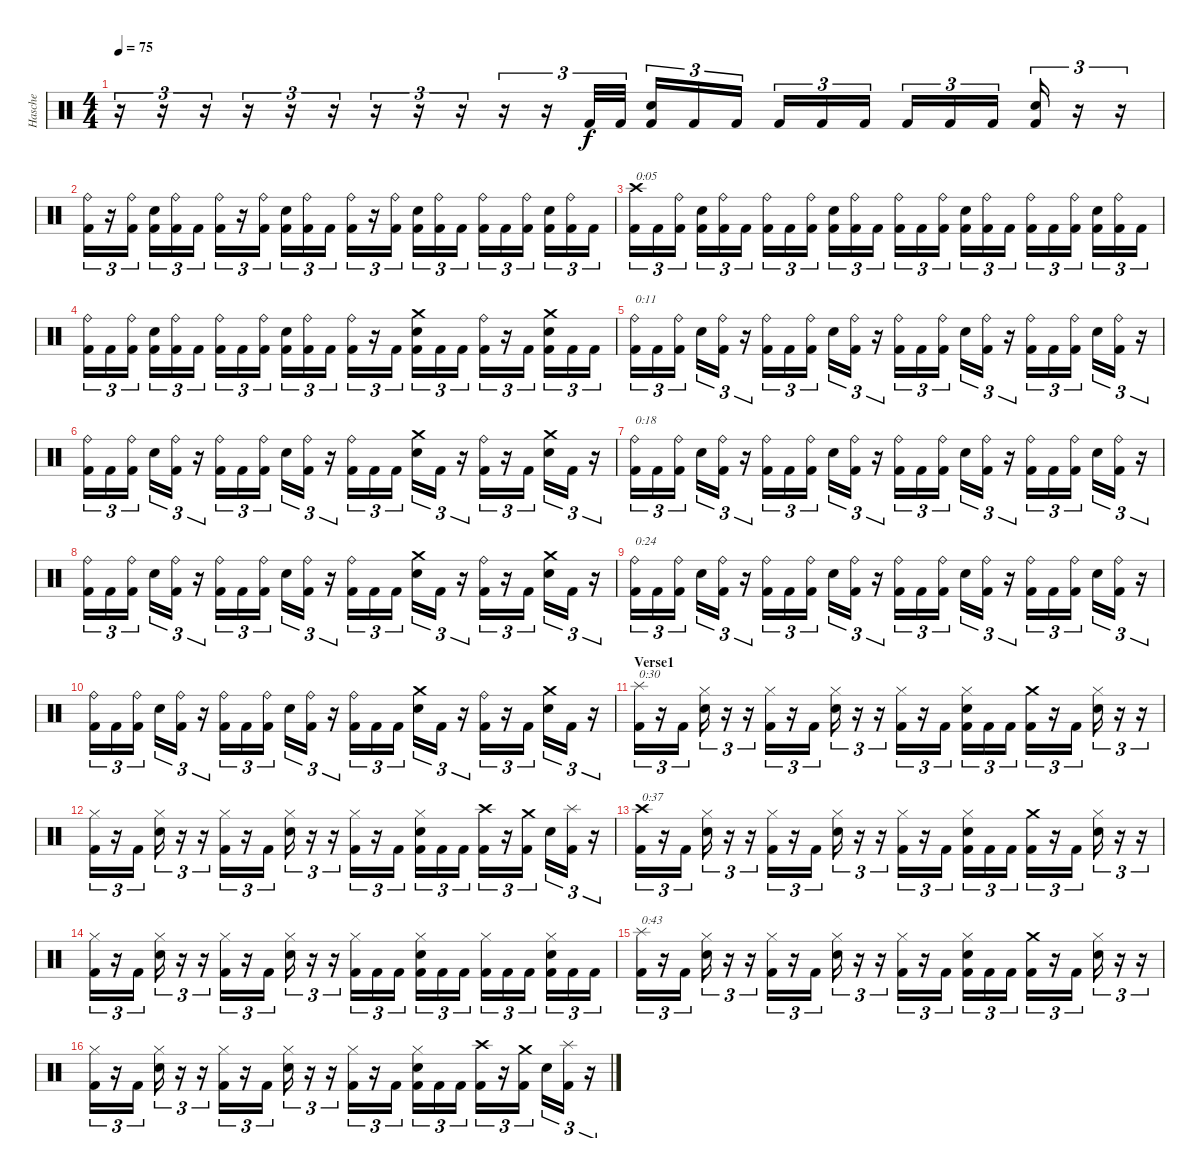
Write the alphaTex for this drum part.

\track ("Hasche" "Hasche") {instrument percussion}
\staff {score}
\articulation defaults
\ts (4 4)
\tempo 75
\clef neutral
\ks c
r.16{tu (3 2) dy f} r.16{tu (3 2)} r.16{tu (3 2)} r.16{tu (3 2)} r.16{tu (3 2)} r.16{tu (3 2)} r.16{tu (3 2)} r.16{tu (3 2)} r.16{tu (3 2)} r.16{tu (3 2)} r.16{tu (3 2)} "Kick (hit) 2".32{tu (3 2)} "Kick (hit) 2".32{tu (3 2)} ("Snare (hit) 2" "Kick (hit) 2").16{tu (3 2)} "Kick (hit) 2".16{tu (3 2)} "Kick (hit) 2".16{tu (3 2)} "Kick (hit) 2".16{tu (3 2)} "Kick (hit) 2".16{tu (3 2)} "Kick (hit) 2".16{tu (3 2)} "Kick (hit) 2".16{tu (3 2)} "Kick (hit) 2".16{tu (3 2)} "Kick (hit) 2".16{tu (3 2)} ("Snare (hit) 2" "Kick (hit) 2").16{tu (3 2)} r.16{tu (3 2)} r.16{tu (3 2)} |
("Ride (bell)" "Kick (hit) 2").16{tu (3 2)} r.16{tu (3 2)} ("Ride (bell)" "Kick (hit) 2").16{tu (3 2)} ("Snare (hit) 2" "Kick (hit) 2").16{tu (3 2)} ("Ride (bell)" "Kick (hit) 2").16{tu (3 2)} "Kick (hit) 2".16{tu (3 2)} ("Ride (bell)" "Kick (hit) 2").16{tu (3 2)} r.16{tu (3 2)} ("Ride (bell)" "Kick (hit) 2").16{tu (3 2)} ("Snare (hit) 2" "Kick (hit) 2").16{tu (3 2)} ("Ride (bell)" "Kick (hit) 2").16{tu (3 2)} "Kick (hit) 2".16{tu (3 2)} ("Ride (bell)" "Kick (hit) 2").16{tu (3 2)} r.16{tu (3 2)} ("Ride (bell)" "Kick (hit) 2").16{tu (3 2)} ("Snare (hit) 2" "Kick (hit) 2").16{tu (3 2)} ("Ride (bell)" "Kick (hit) 2").16{tu (3 2)} "Kick (hit) 2".16{tu (3 2)} ("Ride (bell)" "Kick (hit) 2").16{tu (3 2)} "Kick (hit) 2".16{tu (3 2)} ("Ride (bell)" "Kick (hit) 2").16{tu (3 2)} ("Snare (hit) 2" "Kick (hit) 2").16{tu (3 2)} ("Ride (bell)" "Kick (hit) 2").16{tu (3 2)} "Kick (hit) 2".16{tu (3 2)} |
("Crash high (hit)" "Kick (hit) 2").16{tu (3 2) txt "0:05"} "Kick (hit) 2".16{tu (3 2)} ("Ride (bell)" "Kick (hit) 2").16{tu (3 2)} ("Snare (hit) 2" "Kick (hit) 2").16{tu (3 2)} ("Ride (bell)" "Kick (hit) 2").16{tu (3 2)} "Kick (hit) 2".16{tu (3 2)} ("Ride (bell)" "Kick (hit) 2").16{tu (3 2)} "Kick (hit) 2".16{tu (3 2)} ("Ride (bell)" "Kick (hit) 2").16{tu (3 2)} ("Snare (hit) 2" "Kick (hit) 2").16{tu (3 2)} ("Ride (bell)" "Kick (hit) 2").16{tu (3 2)} "Kick (hit) 2".16{tu (3 2)} ("Ride (bell)" "Kick (hit) 2").16{tu (3 2)} "Kick (hit) 2".16{tu (3 2)} ("Ride (bell)" "Kick (hit) 2").16{tu (3 2)} ("Snare (hit) 2" "Kick (hit) 2").16{tu (3 2)} ("Ride (bell)" "Kick (hit) 2").16{tu (3 2)} "Kick (hit) 2".16{tu (3 2)} ("Ride (bell)" "Kick (hit) 2").16{tu (3 2)} "Kick (hit) 2".16{tu (3 2)} ("Ride (bell)" "Kick (hit) 2").16{tu (3 2)} ("Snare (hit) 2" "Kick (hit) 2").16{tu (3 2)} ("Ride (bell)" "Kick (hit) 2").16{tu (3 2)} "Kick (hit) 2".16{tu (3 2)} |
("Ride (bell)" "Kick (hit) 2").16{tu (3 2)} "Kick (hit) 2".16{tu (3 2)} ("Ride (bell)" "Kick (hit) 2").16{tu (3 2)} ("Snare (hit) 2" "Kick (hit) 2").16{tu (3 2)} ("Ride (bell)" "Kick (hit) 2").16{tu (3 2)} "Kick (hit) 2".16{tu (3 2)} ("Ride (bell)" "Kick (hit) 2").16{tu (3 2)} "Kick (hit) 2".16{tu (3 2)} ("Ride (bell)" "Kick (hit) 2").16{tu (3 2)} ("Snare (hit) 2" "Kick (hit) 2").16{tu (3 2)} ("Ride (bell)" "Kick (hit) 2").16{tu (3 2)} "Kick (hit) 2".16{tu (3 2)} ("Ride (bell)" "Kick (hit) 2").16{tu (3 2)} r.16{tu (3 2)} "Kick (hit) 2".16{tu (3 2)} ("Crash medium (hit)" "Snare (hit) 2" "Kick (hit) 2").16{tu (3 2)} "Kick (hit) 2".16{tu (3 2)} "Kick (hit) 2".16{tu (3 2)} ("Ride (bell)" "Kick (hit) 2").16{tu (3 2)} r.16{tu (3 2)} "Kick (hit) 2".16{tu (3 2)} ("Crash medium (hit)" "Snare (hit) 2" "Kick (hit) 2").16{tu (3 2)} "Kick (hit) 2".16{tu (3 2)} "Kick (hit) 2".16{tu (3 2)} |
("Ride (bell)" "Kick (hit) 2").16{tu (3 2) txt "0:11"} "Kick (hit) 2".16{tu (3 2)} ("Ride (bell)" "Kick (hit) 2").16{tu (3 2)} "Snare (hit) 2".16{tu (3 2)} ("Ride (bell)" "Kick (hit) 2").16{tu (3 2)} r.16{tu (3 2)} ("Ride (bell)" "Kick (hit) 2").16{tu (3 2)} "Kick (hit) 2".16{tu (3 2)} ("Ride (bell)" "Kick (hit) 2").16{tu (3 2)} "Snare (hit) 2".16{tu (3 2)} ("Ride (bell)" "Kick (hit) 2").16{tu (3 2)} r.16{tu (3 2)} ("Ride (bell)" "Kick (hit) 2").16{tu (3 2)} "Kick (hit) 2".16{tu (3 2)} ("Ride (bell)" "Kick (hit) 2").16{tu (3 2)} "Snare (hit) 2".16{tu (3 2)} ("Ride (bell)" "Kick (hit) 2").16{tu (3 2)} r.16{tu (3 2)} ("Ride (bell)" "Kick (hit) 2").16{tu (3 2)} "Kick (hit) 2".16{tu (3 2)} ("Ride (bell)" "Kick (hit) 2").16{tu (3 2)} "Snare (hit) 2".16{tu (3 2)} ("Ride (bell)" "Kick (hit) 2").16{tu (3 2)} r.16{tu (3 2)} |
("Ride (bell)" "Kick (hit) 2").16{tu (3 2)} "Kick (hit) 2".16{tu (3 2)} ("Ride (bell)" "Kick (hit) 2").16{tu (3 2)} "Snare (hit) 2".16{tu (3 2)} ("Ride (bell)" "Kick (hit) 2").16{tu (3 2)} r.16{tu (3 2)} ("Ride (bell)" "Kick (hit) 2").16{tu (3 2)} "Kick (hit) 2".16{tu (3 2)} ("Ride (bell)" "Kick (hit) 2").16{tu (3 2)} "Snare (hit) 2".16{tu (3 2)} ("Ride (bell)" "Kick (hit) 2").16{tu (3 2)} r.16{tu (3 2)} ("Ride (bell)" "Kick (hit) 2").16{tu (3 2)} "Kick (hit) 2".16{tu (3 2)} "Kick (hit) 2".16{tu (3 2)} ("Crash medium (hit)" "Snare (hit) 2").16{tu (3 2)} "Kick (hit) 2".16{tu (3 2)} r.16{tu (3 2)} ("Ride (bell)" "Kick (hit) 2").16{tu (3 2)} r.16{tu (3 2)} "Kick (hit) 2".16{tu (3 2)} ("Crash medium (hit)" "Snare (hit) 2").16{tu (3 2)} "Kick (hit) 2".16{tu (3 2)} r.16{tu (3 2)} |
("Ride (bell)" "Kick (hit) 2").16{tu (3 2) txt "0:18"} "Kick (hit) 2".16{tu (3 2)} ("Ride (bell)" "Kick (hit) 2").16{tu (3 2)} "Snare (hit) 2".16{tu (3 2)} ("Ride (bell)" "Kick (hit) 2").16{tu (3 2)} r.16{tu (3 2)} ("Ride (bell)" "Kick (hit) 2").16{tu (3 2)} "Kick (hit) 2".16{tu (3 2)} ("Ride (bell)" "Kick (hit) 2").16{tu (3 2)} "Snare (hit) 2".16{tu (3 2)} ("Ride (bell)" "Kick (hit) 2").16{tu (3 2)} r.16{tu (3 2)} ("Ride (bell)" "Kick (hit) 2").16{tu (3 2)} "Kick (hit) 2".16{tu (3 2)} ("Ride (bell)" "Kick (hit) 2").16{tu (3 2)} "Snare (hit) 2".16{tu (3 2)} ("Ride (bell)" "Kick (hit) 2").16{tu (3 2)} r.16{tu (3 2)} ("Ride (bell)" "Kick (hit) 2").16{tu (3 2)} "Kick (hit) 2".16{tu (3 2)} ("Ride (bell)" "Kick (hit) 2").16{tu (3 2)} "Snare (hit) 2".16{tu (3 2)} ("Ride (bell)" "Kick (hit) 2").16{tu (3 2)} r.16{tu (3 2)} |
("Ride (bell)" "Kick (hit) 2").16{tu (3 2)} "Kick (hit) 2".16{tu (3 2)} ("Ride (bell)" "Kick (hit) 2").16{tu (3 2)} "Snare (hit) 2".16{tu (3 2)} ("Ride (bell)" "Kick (hit) 2").16{tu (3 2)} r.16{tu (3 2)} ("Ride (bell)" "Kick (hit) 2").16{tu (3 2)} "Kick (hit) 2".16{tu (3 2)} ("Ride (bell)" "Kick (hit) 2").16{tu (3 2)} "Snare (hit) 2".16{tu (3 2)} ("Ride (bell)" "Kick (hit) 2").16{tu (3 2)} r.16{tu (3 2)} ("Ride (bell)" "Kick (hit) 2").16{tu (3 2)} "Kick (hit) 2".16{tu (3 2)} "Kick (hit) 2".16{tu (3 2)} ("Crash medium (hit)" "Snare (hit) 2").16{tu (3 2)} "Kick (hit) 2".16{tu (3 2)} r.16{tu (3 2)} ("Ride (bell)" "Kick (hit) 2").16{tu (3 2)} r.16{tu (3 2)} "Kick (hit) 2".16{tu (3 2)} ("Crash medium (hit)" "Snare (hit) 2").16{tu (3 2)} "Kick (hit) 2".16{tu (3 2)} r.16{tu (3 2)} |
("Ride (bell)" "Kick (hit) 2").16{tu (3 2) txt "0:24"} "Kick (hit) 2".16{tu (3 2)} ("Ride (bell)" "Kick (hit) 2").16{tu (3 2)} "Snare (hit) 2".16{tu (3 2)} ("Ride (bell)" "Kick (hit) 2").16{tu (3 2)} r.16{tu (3 2)} ("Ride (bell)" "Kick (hit) 2").16{tu (3 2)} "Kick (hit) 2".16{tu (3 2)} ("Ride (bell)" "Kick (hit) 2").16{tu (3 2)} "Snare (hit) 2".16{tu (3 2)} ("Ride (bell)" "Kick (hit) 2").16{tu (3 2)} r.16{tu (3 2)} ("Ride (bell)" "Kick (hit) 2").16{tu (3 2)} "Kick (hit) 2".16{tu (3 2)} ("Ride (bell)" "Kick (hit) 2").16{tu (3 2)} "Snare (hit) 2".16{tu (3 2)} ("Ride (bell)" "Kick (hit) 2").16{tu (3 2)} r.16{tu (3 2)} ("Ride (bell)" "Kick (hit) 2").16{tu (3 2)} "Kick (hit) 2".16{tu (3 2)} ("Ride (bell)" "Kick (hit) 2").16{tu (3 2)} "Snare (hit) 2".16{tu (3 2)} ("Ride (bell)" "Kick (hit) 2").16{tu (3 2)} r.16{tu (3 2)} |
("Ride (bell)" "Kick (hit) 2").16{tu (3 2)} "Kick (hit) 2".16{tu (3 2)} ("Ride (bell)" "Kick (hit) 2").16{tu (3 2)} "Snare (hit) 2".16{tu (3 2)} ("Ride (bell)" "Kick (hit) 2").16{tu (3 2)} r.16{tu (3 2)} ("Ride (bell)" "Kick (hit) 2").16{tu (3 2)} "Kick (hit) 2".16{tu (3 2)} ("Ride (bell)" "Kick (hit) 2").16{tu (3 2)} "Snare (hit) 2".16{tu (3 2)} ("Ride (bell)" "Kick (hit) 2").16{tu (3 2)} r.16{tu (3 2)} ("Ride (bell)" "Kick (hit) 2").16{tu (3 2)} "Kick (hit) 2".16{tu (3 2)} "Kick (hit) 2".16{tu (3 2)} ("Crash medium (hit)" "Snare (hit) 2").16{tu (3 2)} "Kick (hit) 2".16{tu (3 2)} r.16{tu (3 2)} ("Ride (bell)" "Kick (hit) 2").16{tu (3 2)} r.16{tu (3 2)} "Kick (hit) 2".16{tu (3 2)} ("Crash medium (hit)" "Snare (hit) 2").16{tu (3 2)} "Kick (hit) 2".16{tu (3 2)} r.16{tu (3 2)} |
\section ("" "Verse1")
("Splash (hit)" "Kick (hit) 2").16{tu (3 2) txt "0:30"} r.16{tu (3 2)} "Kick (hit) 2".16{tu (3 2)} ("Hi-Hat (closed)" "Snare (hit) 2").16{tu (3 2)} r.16{tu (3 2)} r.16{tu (3 2)} ("Hi-Hat (closed)" "Kick (hit) 2").16{tu (3 2)} r.16{tu (3 2)} "Kick (hit) 2".16{tu (3 2)} ("Hi-Hat (closed)" "Snare (hit) 2").16{tu (3 2)} r.16{tu (3 2)} r.16{tu (3 2)} ("Hi-Hat (closed)" "Kick (hit) 2").16{tu (3 2)} r.16{tu (3 2)} "Kick (hit) 2".16{tu (3 2)} ("Hi-Hat (closed)" "Snare (hit) 2" "Kick (hit) 2").16{tu (3 2)} "Kick (hit) 2".16{tu (3 2)} "Kick (hit) 2".16{tu (3 2)} ("Crash medium (hit)" "Kick (hit) 2").16{tu (3 2)} r.16{tu (3 2)} "Kick (hit) 2".16{tu (3 2)} ("Hi-Hat (closed)" "Snare (hit) 2").16{tu (3 2)} r.16{tu (3 2)} r.16{tu (3 2)} |
("Hi-Hat (closed)" "Kick (hit) 2").16{tu (3 2)} r.16{tu (3 2)} "Kick (hit) 2".16{tu (3 2)} ("Hi-Hat (closed)" "Snare (hit) 2").16{tu (3 2)} r.16{tu (3 2)} r.16{tu (3 2)} ("Hi-Hat (closed)" "Kick (hit) 2").16{tu (3 2)} r.16{tu (3 2)} "Kick (hit) 2".16{tu (3 2)} ("Hi-Hat (closed)" "Snare (hit) 2").16{tu (3 2)} r.16{tu (3 2)} r.16{tu (3 2)} ("Hi-Hat (closed)" "Kick (hit) 2").16{tu (3 2)} r.16{tu (3 2)} "Kick (hit) 2".16{tu (3 2)} ("Hi-Hat (closed)" "Snare (hit) 2" "Kick (hit) 2").16{tu (3 2)} "Kick (hit) 2".16{tu (3 2)} "Kick (hit) 2".16{tu (3 2)} ("Crash high (hit)" "Kick (hit) 2").16{tu (3 2)} r.16{tu (3 2)} ("Crash medium (hit)" "Kick (hit) 2").16{tu (3 2)} "Snare (hit) 2".16{tu (3 2)} ("Splash (hit)" "Kick (hit) 2").16{tu (3 2)} r.16{tu (3 2)} |
("Crash high (hit)" "Kick (hit) 2").16{tu (3 2) txt "0:37"} r.16{tu (3 2)} "Kick (hit) 2".16{tu (3 2)} ("Hi-Hat (closed)" "Snare (hit) 2").16{tu (3 2)} r.16{tu (3 2)} r.16{tu (3 2)} ("Hi-Hat (closed)" "Kick (hit) 2").16{tu (3 2)} r.16{tu (3 2)} "Kick (hit) 2".16{tu (3 2)} ("Hi-Hat (closed)" "Snare (hit) 2").16{tu (3 2)} r.16{tu (3 2)} r.16{tu (3 2)} ("Hi-Hat (closed)" "Kick (hit) 2").16{tu (3 2)} r.16{tu (3 2)} "Kick (hit) 2".16{tu (3 2)} ("Hi-Hat (closed)" "Snare (hit) 2" "Kick (hit) 2").16{tu (3 2)} "Kick (hit) 2".16{tu (3 2)} "Kick (hit) 2".16{tu (3 2)} ("Crash medium (hit)" "Kick (hit) 2").16{tu (3 2)} r.16{tu (3 2)} "Kick (hit) 2".16{tu (3 2)} ("Hi-Hat (closed)" "Snare (hit) 2").16{tu (3 2)} r.16{tu (3 2)} r.16{tu (3 2)} |
("Hi-Hat (closed)" "Kick (hit) 2").16{tu (3 2)} r.16{tu (3 2)} "Kick (hit) 2".16{tu (3 2)} ("Hi-Hat (closed)" "Snare (hit) 2").16{tu (3 2)} r.16{tu (3 2)} r.16{tu (3 2)} ("Hi-Hat (closed)" "Kick (hit) 2").16{tu (3 2)} r.16{tu (3 2)} "Kick (hit) 2".16{tu (3 2)} ("Hi-Hat (closed)" "Snare (hit) 2").16{tu (3 2)} r.16{tu (3 2)} r.16{tu (3 2)} ("Hi-Hat (closed)" "Kick (hit) 2").16{tu (3 2)} "Kick (hit) 2".16{tu (3 2)} "Kick (hit) 2".16{tu (3 2)} ("Hi-Hat (closed)" "Snare (hit) 2" "Kick (hit) 2").16{tu (3 2)} "Kick (hit) 2".16{tu (3 2)} "Kick (hit) 2".16{tu (3 2)} ("Hi-Hat (closed)" "Kick (hit) 2").16{tu (3 2)} "Kick (hit) 2".16{tu (3 2)} "Kick (hit) 2".16{tu (3 2)} ("Hi-Hat (closed)" "Snare (hit) 2" "Kick (hit) 2").16{tu (3 2)} "Kick (hit) 2".16{tu (3 2)} "Kick (hit) 2".16{tu (3 2)} |
("Splash (hit)" "Kick (hit) 2").16{tu (3 2) txt "0:43"} r.16{tu (3 2)} "Kick (hit) 2".16{tu (3 2)} ("Hi-Hat (closed)" "Snare (hit) 2").16{tu (3 2)} r.16{tu (3 2)} r.16{tu (3 2)} ("Hi-Hat (closed)" "Kick (hit) 2").16{tu (3 2)} r.16{tu (3 2)} "Kick (hit) 2".16{tu (3 2)} ("Hi-Hat (closed)" "Snare (hit) 2").16{tu (3 2)} r.16{tu (3 2)} r.16{tu (3 2)} ("Hi-Hat (closed)" "Kick (hit) 2").16{tu (3 2)} r.16{tu (3 2)} "Kick (hit) 2".16{tu (3 2)} ("Hi-Hat (closed)" "Snare (hit) 2" "Kick (hit) 2").16{tu (3 2)} "Kick (hit) 2".16{tu (3 2)} "Kick (hit) 2".16{tu (3 2)} ("Crash medium (hit)" "Kick (hit) 2").16{tu (3 2)} r.16{tu (3 2)} "Kick (hit) 2".16{tu (3 2)} ("Hi-Hat (closed)" "Snare (hit) 2").16{tu (3 2)} r.16{tu (3 2)} r.16{tu (3 2)} |
("Hi-Hat (closed)" "Kick (hit) 2").16{tu (3 2)} r.16{tu (3 2)} "Kick (hit) 2".16{tu (3 2)} ("Hi-Hat (closed)" "Snare (hit) 2").16{tu (3 2)} r.16{tu (3 2)} r.16{tu (3 2)} ("Hi-Hat (closed)" "Kick (hit) 2").16{tu (3 2)} r.16{tu (3 2)} "Kick (hit) 2".16{tu (3 2)} ("Hi-Hat (closed)" "Snare (hit) 2").16{tu (3 2)} r.16{tu (3 2)} r.16{tu (3 2)} ("Hi-Hat (closed)" "Kick (hit) 2").16{tu (3 2)} r.16{tu (3 2)} "Kick (hit) 2".16{tu (3 2)} ("Hi-Hat (closed)" "Snare (hit) 2" "Kick (hit) 2").16{tu (3 2)} "Kick (hit) 2".16{tu (3 2)} "Kick (hit) 2".16{tu (3 2)} ("Crash high (hit)" "Kick (hit) 2").16{tu (3 2)} r.16{tu (3 2)} ("Crash medium (hit)" "Kick (hit) 2").16{tu (3 2)} "Snare (hit) 2".16{tu (3 2)} ("Splash (hit)" "Kick (hit) 2").16{tu (3 2)} r.16{tu (3 2)}
